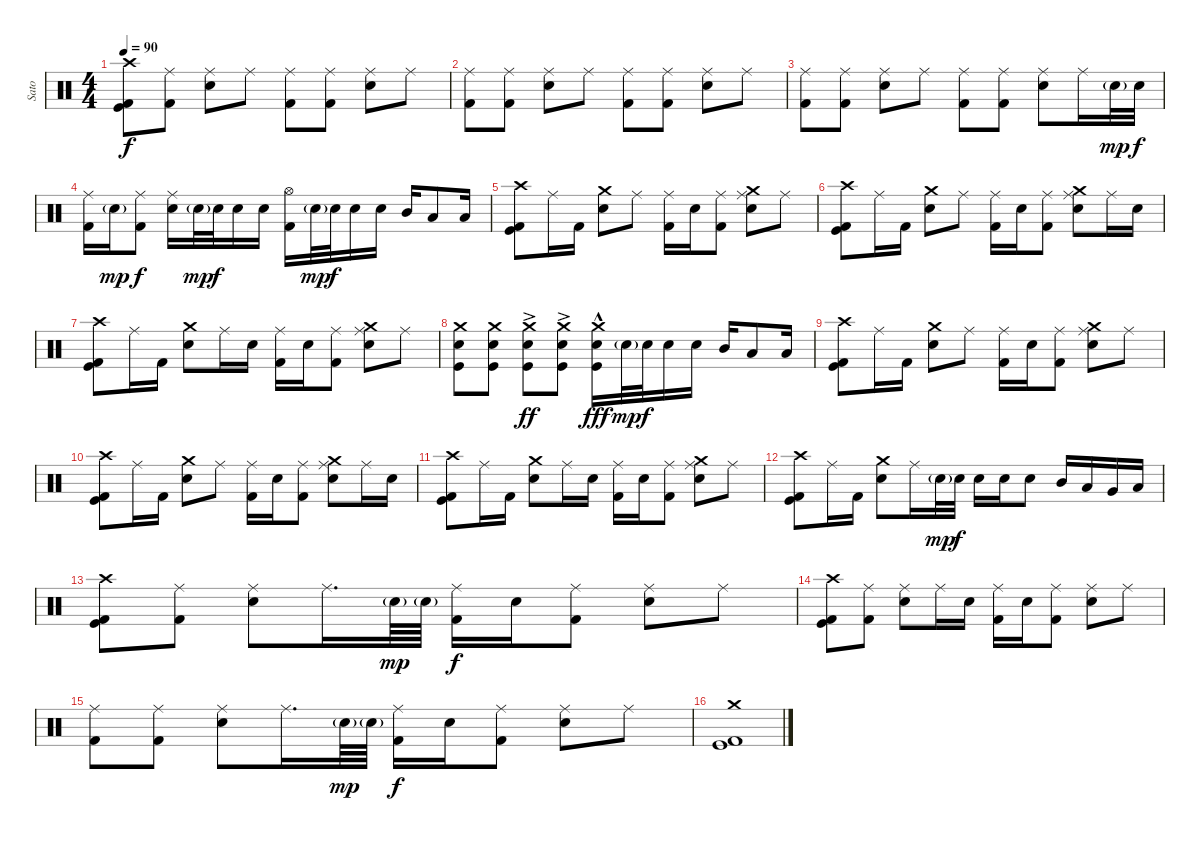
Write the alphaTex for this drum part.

\track ("Sato" "Sato") {instrument percussion}
\staff {score}
\articulation defaults
\ts (4 4)
\tempo 90
\clef neutral
\ks c
("Crash high (hit)" "Kick (hit) 2" "Kick (hit)").8{dy f} ("Ride (middle)" "Kick (hit) 2").8 ("Ride (middle)" "Electric Snare (hit)").8 "Ride (middle)".8 ("Ride (middle)" "Kick (hit) 2").8 ("Ride (middle)" "Kick (hit) 2").8 ("Ride (middle)" "Electric Snare (hit)").8 "Ride (middle)".8 |
("Ride (middle)" "Kick (hit) 2").8 ("Ride (middle)" "Kick (hit) 2").8 ("Ride (middle)" "Electric Snare (hit)").8 "Ride (middle)".8 ("Ride (middle)" "Kick (hit) 2").8 ("Ride (middle)" "Kick (hit) 2").8 ("Ride (middle)" "Electric Snare (hit)").8 "Ride (middle)".8 |
("Ride (middle)" "Kick (hit) 2").8 ("Ride (middle)" "Kick (hit) 2").8 ("Ride (middle)" "Electric Snare (hit)").8 "Ride (middle)".8 ("Ride (middle)" "Kick (hit) 2").8 ("Ride (middle)" "Kick (hit) 2").8 ("Ride (middle)" "Electric Snare (hit)").8 "Ride (middle)".16 "Electric Snare (hit)"{g}.32{dy mp} "Electric Snare (hit)".32{dy f} |
("Ride (middle)" "Kick (hit) 2").16 "Electric Snare (hit)"{g}.16{dy mp} ("Ride (middle)" "Kick (hit) 2").8{dy f} ("Ride (middle)" "Electric Snare (hit)").16 "Electric Snare (hit)"{g}.32{dy mp} "Electric Snare (hit)".32{dy f} "Electric Snare (hit)".16 "Electric Snare (hit)".16 ("Hi-Hat (open)" "Kick (hit) 2").16 "Electric Snare (hit)"{g}.32{dy mp} "Electric Snare (hit)".32{dy f} "Electric Snare (hit)".16 "Electric Snare (hit)".16 "Mid Tom (hit)".16 "Low Tom (hit)".8 "Low Floor Tom (hit)".16 |
("Crash high (hit)" "Kick (hit) 2" "Kick (hit)").8 "Ride (middle)".16 "Kick (hit) 2".16 ("Crash medium (hit)" "Electric Snare (hit)").8 "Ride (middle)".8 ("Ride (middle)" "Kick (hit) 2").16 "Electric Snare (hit)".16 ("Ride (middle)" "Kick (hit) 2").8 ("Ride (middle)" "Electric Snare (hit)" "Crash medium (hit)").8 "Ride (middle)".8 |
("Crash high (hit)" "Kick (hit) 2" "Kick (hit)").8 "Ride (middle)".16 "Kick (hit) 2".16 ("Crash medium (hit)" "Electric Snare (hit)").8 "Ride (middle)".8 ("Ride (middle)" "Kick (hit) 2").16 "Electric Snare (hit)".16 ("Ride (middle)" "Kick (hit) 2").8 ("Ride (middle)" "Electric Snare (hit)" "Crash medium (hit)").8 "Ride (middle)".16 "Electric Snare (hit)".16 |
("Crash high (hit)" "Kick (hit) 2" "Kick (hit)").8 "Ride (middle)".16 "Kick (hit) 2".16 ("Crash medium (hit)" "Electric Snare (hit)").8 "Ride (middle)".16 "Electric Snare (hit)".16 ("Ride (middle)" "Kick (hit) 2").16 "Electric Snare (hit)".16 ("Ride (middle)" "Kick (hit) 2").8 ("Ride (middle)" "Electric Snare (hit)" "Crash medium (hit)").8 "Ride (middle)".8 |
("Crash medium (hit)" "Electric Snare (hit)" "Kick (hit)").8 ("Crash medium (hit)" "Electric Snare (hit)" "Kick (hit)").8 ("Crash medium (hit)"{ac} "Electric Snare (hit)"{ac} "Kick (hit)"{ac}).8{dy ff} ("Crash medium (hit)"{ac} "Electric Snare (hit)"{ac} "Kick (hit)"{ac}).8 ("Crash medium (hit)"{hac} "Electric Snare (hit)"{hac} "Kick (hit)"{hac}).16{dy fff} "Electric Snare (hit)"{g}.32{dy mp} "Electric Snare (hit)".32{dy f} "Electric Snare (hit)".16 "Electric Snare (hit)".16 "Mid Tom (hit)".16 "Low Tom (hit)".8 "Low Floor Tom (hit)".16 |
("Crash high (hit)" "Kick (hit) 2" "Kick (hit)").8 "Ride (middle)".16 "Kick (hit) 2".16 ("Crash medium (hit)" "Electric Snare (hit)").8 "Ride (middle)".8 ("Ride (middle)" "Kick (hit) 2").16 "Electric Snare (hit)".16 ("Ride (middle)" "Kick (hit) 2").8 ("Ride (middle)" "Electric Snare (hit)" "Crash medium (hit)").8 "Ride (middle)".8 |
("Crash high (hit)" "Kick (hit) 2" "Kick (hit)").8 "Ride (middle)".16 "Kick (hit) 2".16 ("Crash medium (hit)" "Electric Snare (hit)").8 "Ride (middle)".8 ("Ride (middle)" "Kick (hit) 2").16 "Electric Snare (hit)".16 ("Ride (middle)" "Kick (hit) 2").8 ("Ride (middle)" "Electric Snare (hit)" "Crash medium (hit)").8 "Ride (middle)".16 "Electric Snare (hit)".16 |
("Crash high (hit)" "Kick (hit) 2" "Kick (hit)").8 "Ride (middle)".16 "Kick (hit) 2".16 ("Crash medium (hit)" "Electric Snare (hit)").8 "Ride (middle)".16 "Electric Snare (hit)".16 ("Ride (middle)" "Kick (hit) 2").16 "Electric Snare (hit)".16 ("Ride (middle)" "Kick (hit) 2").8 ("Ride (middle)" "Electric Snare (hit)" "Crash medium (hit)").8 "Ride (middle)".8 |
("Crash high (hit)" "Kick (hit) 2" "Kick (hit)").8 "Ride (middle)".16 "Kick (hit) 2".16 ("Crash medium (hit)" "Electric Snare (hit)").8 "Ride (middle)".16 "Electric Snare (hit)"{g}.32{dy mp} "Electric Snare (hit)".32{dy f} "Electric Snare (hit)".16 "Electric Snare (hit)".16 "Electric Snare (hit)".8 "Mid Tom (hit)".16 "Low Tom (hit)".16 "Very Low Tom (hit)".16 "Low Floor Tom (hit)".16 |
("Crash high (hit)" "Kick (hit) 2" "Kick (hit)").8 ("Ride (middle)" "Kick (hit) 2").8 ("Ride (middle)" "Electric Snare (hit)").8 "Ride (middle)".16{d} "Electric Snare (hit)"{g}.64{dy mp} "Electric Snare (hit)"{g}.64 ("Ride (middle)" "Kick (hit) 2").16{dy f} "Electric Snare (hit)".16 ("Ride (middle)" "Kick (hit) 2").8 ("Ride (middle)" "Electric Snare (hit)").8 "Ride (middle)".8 |
("Crash high (hit)" "Kick (hit) 2" "Kick (hit)").8 ("Ride (middle)" "Kick (hit) 2").8 ("Ride (middle)" "Electric Snare (hit)").8 "Ride (middle)".16 "Electric Snare (hit)".16 ("Ride (middle)" "Kick (hit) 2").16 "Electric Snare (hit)".16 ("Ride (middle)" "Kick (hit) 2").8 ("Ride (middle)" "Electric Snare (hit)").8 "Ride (middle)".8 |
("Ride (middle)" "Kick (hit) 2").8 ("Ride (middle)" "Kick (hit) 2").8 ("Ride (middle)" "Electric Snare (hit)").8 "Ride (middle)".16{d} "Electric Snare (hit)"{g}.64{dy mp} "Electric Snare (hit)"{g}.64 ("Ride (middle)" "Kick (hit) 2").16{dy f} "Electric Snare (hit)".16 ("Ride (middle)" "Kick (hit) 2").8 ("Ride (middle)" "Electric Snare (hit)").8 "Ride (middle)".8 |
("Kick (hit) 2" "Kick (hit)" "Crash medium (hit)").1
